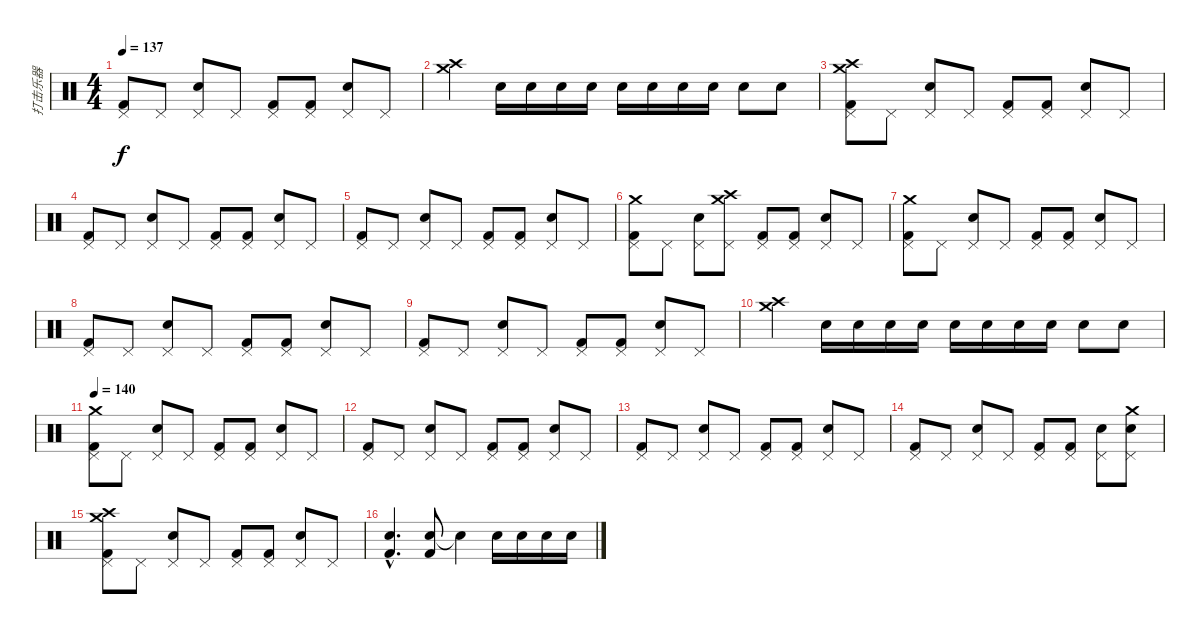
\track ("打击乐器" "打击乐器") {instrument percussion}
\staff {score}
\articulation defaults
\ts (4 4)
\tempo 137
\clef neutral
\ks c
("Pedal Hi-Hat (hit)" "Kick (hit) 2").8{dy f} "Pedal Hi-Hat (hit)".8 ("Snare (hit) 2" "Pedal Hi-Hat (hit)").8 "Pedal Hi-Hat (hit)".8 ("Pedal Hi-Hat (hit)" "Kick (hit) 2").8 ("Pedal Hi-Hat (hit)" "Kick (hit) 2").8 ("Snare (hit) 2" "Pedal Hi-Hat (hit)").8 "Pedal Hi-Hat (hit)".8 |
("Crash high (hit)" "Crash medium (hit)").4 "Electric Snare (hit)".16 "Electric Snare (hit)".16 "Electric Snare (hit)".16 "Electric Snare (hit)".16 "Electric Snare (hit)".16 "Electric Snare (hit)".16 "Electric Snare (hit)".16 "Electric Snare (hit)".16 "Electric Snare (hit)".8 "Snare (hit) 2".8 |
("Crash high (hit)" "Crash medium (hit)" "Pedal Hi-Hat (hit)" "Kick (hit) 2").8 "Pedal Hi-Hat (hit)".8 ("Snare (hit) 2" "Pedal Hi-Hat (hit)").8 "Pedal Hi-Hat (hit)".8 ("Pedal Hi-Hat (hit)" "Kick (hit) 2").8 ("Pedal Hi-Hat (hit)" "Kick (hit) 2").8 ("Snare (hit) 2" "Pedal Hi-Hat (hit)").8 "Pedal Hi-Hat (hit)".8 |
("Pedal Hi-Hat (hit)" "Kick (hit) 2").8 "Pedal Hi-Hat (hit)".8 ("Snare (hit) 2" "Pedal Hi-Hat (hit)").8 "Pedal Hi-Hat (hit)".8 ("Pedal Hi-Hat (hit)" "Kick (hit) 2").8 ("Pedal Hi-Hat (hit)" "Kick (hit) 2").8 ("Snare (hit) 2" "Pedal Hi-Hat (hit)").8 "Pedal Hi-Hat (hit)".8 |
("Pedal Hi-Hat (hit)" "Kick (hit) 2").8 "Pedal Hi-Hat (hit)".8 ("Snare (hit) 2" "Pedal Hi-Hat (hit)").8 "Pedal Hi-Hat (hit)".8 ("Pedal Hi-Hat (hit)" "Kick (hit) 2").8 ("Pedal Hi-Hat (hit)" "Kick (hit) 2").8 ("Snare (hit) 2" "Pedal Hi-Hat (hit)").8 "Pedal Hi-Hat (hit)".8 |
("Crash medium (hit)" "Pedal Hi-Hat (hit)" "Kick (hit) 2").8 "Pedal Hi-Hat (hit)".8 ("Snare (hit) 2" "Pedal Hi-Hat (hit)").8 ("Crash medium (hit)" "Crash high (hit)" "Pedal Hi-Hat (hit)").8 ("Pedal Hi-Hat (hit)" "Kick (hit) 2").8 ("Pedal Hi-Hat (hit)" "Kick (hit) 2").8 ("Snare (hit) 2" "Pedal Hi-Hat (hit)").8 "Pedal Hi-Hat (hit)".8 |
("Crash medium (hit)" "Pedal Hi-Hat (hit)" "Kick (hit) 2").8 "Pedal Hi-Hat (hit)".8 ("Snare (hit) 2" "Pedal Hi-Hat (hit)").8 "Pedal Hi-Hat (hit)".8 ("Pedal Hi-Hat (hit)" "Kick (hit) 2").8 ("Pedal Hi-Hat (hit)" "Kick (hit) 2").8 ("Snare (hit) 2" "Pedal Hi-Hat (hit)").8 "Pedal Hi-Hat (hit)".8 |
("Pedal Hi-Hat (hit)" "Kick (hit) 2").8 "Pedal Hi-Hat (hit)".8 ("Snare (hit) 2" "Pedal Hi-Hat (hit)").8 "Pedal Hi-Hat (hit)".8 ("Pedal Hi-Hat (hit)" "Kick (hit) 2").8 ("Pedal Hi-Hat (hit)" "Kick (hit) 2").8 ("Snare (hit) 2" "Pedal Hi-Hat (hit)").8 "Pedal Hi-Hat (hit)".8 |
("Pedal Hi-Hat (hit)" "Kick (hit) 2").8 "Pedal Hi-Hat (hit)".8 ("Snare (hit) 2" "Pedal Hi-Hat (hit)").8 "Pedal Hi-Hat (hit)".8 ("Pedal Hi-Hat (hit)" "Kick (hit) 2").8 ("Pedal Hi-Hat (hit)" "Kick (hit) 2").8 ("Snare (hit) 2" "Pedal Hi-Hat (hit)").8 "Pedal Hi-Hat (hit)".8 |
("Crash high (hit)" "Crash medium (hit)").4 "Electric Snare (hit)".16 "Electric Snare (hit)".16 "Electric Snare (hit)".16 "Electric Snare (hit)".16 "Electric Snare (hit)".16 "Electric Snare (hit)".16 "Electric Snare (hit)".16 "Electric Snare (hit)".16 "Electric Snare (hit)".8 "Snare (hit) 2".8 |
\tempo 140
("Crash medium (hit)" "Pedal Hi-Hat (hit)" "Kick (hit) 2").8 "Pedal Hi-Hat (hit)".8 ("Pedal Hi-Hat (hit)" "Snare (hit) 2").8 "Pedal Hi-Hat (hit)".8 ("Pedal Hi-Hat (hit)" "Kick (hit) 2").8 ("Pedal Hi-Hat (hit)" "Kick (hit) 2").8 ("Pedal Hi-Hat (hit)" "Snare (hit) 2").8 "Pedal Hi-Hat (hit)".8 |
("Pedal Hi-Hat (hit)" "Kick (hit) 2").8 "Pedal Hi-Hat (hit)".8 ("Pedal Hi-Hat (hit)" "Snare (hit) 2").8 "Pedal Hi-Hat (hit)".8 ("Pedal Hi-Hat (hit)" "Kick (hit) 2").8 ("Pedal Hi-Hat (hit)" "Kick (hit) 2").8 ("Pedal Hi-Hat (hit)" "Snare (hit) 2").8 "Pedal Hi-Hat (hit)".8 |
("Pedal Hi-Hat (hit)" "Kick (hit) 2").8 "Pedal Hi-Hat (hit)".8 ("Pedal Hi-Hat (hit)" "Snare (hit) 2").8 "Pedal Hi-Hat (hit)".8 ("Pedal Hi-Hat (hit)" "Kick (hit) 2").8 ("Pedal Hi-Hat (hit)" "Kick (hit) 2").8 ("Pedal Hi-Hat (hit)" "Snare (hit) 2").8 "Pedal Hi-Hat (hit)".8 |
("Pedal Hi-Hat (hit)" "Kick (hit) 2").8 "Pedal Hi-Hat (hit)".8 ("Pedal Hi-Hat (hit)" "Snare (hit) 2").8 "Pedal Hi-Hat (hit)".8 ("Pedal Hi-Hat (hit)" "Kick (hit) 2").8 ("Pedal Hi-Hat (hit)" "Kick (hit) 2").8 ("Pedal Hi-Hat (hit)" "Snare (hit) 2").8 ("Crash medium (hit)" "Pedal Hi-Hat (hit)" "Snare (hit) 2").8 |
("Crash high (hit)" "Crash medium (hit)" "Pedal Hi-Hat (hit)" "Kick (hit) 2").8 "Pedal Hi-Hat (hit)".8 ("Pedal Hi-Hat (hit)" "Snare (hit) 2").8 "Pedal Hi-Hat (hit)".8 ("Pedal Hi-Hat (hit)" "Kick (hit) 2").8 ("Pedal Hi-Hat (hit)" "Kick (hit) 2").8 ("Pedal Hi-Hat (hit)" "Snare (hit) 2").8 "Pedal Hi-Hat (hit)".8 |
("Snare (hit) 2"{hac} "Kick (hit) 2"{hac}).4{d} ("Snare (hit) 2" "Kick (hit) 2").8 "Snare (hit)"{t}.4 "Electric Snare (hit)".16 "Electric Snare (hit)".16 "Electric Snare (hit)".16 "Electric Snare (hit)".16
